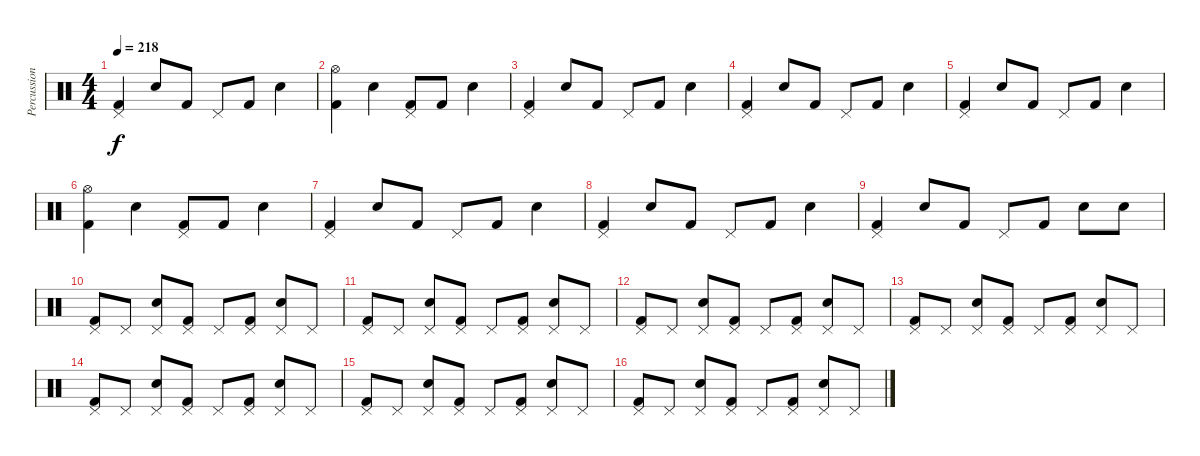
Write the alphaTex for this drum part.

\track ("Percussion" "Percussion") {instrument percussion}
\staff {score}
\articulation defaults
\ts (4 4)
\tempo 218
\clef neutral
\ks c
("Kick (hit) 2" "Pedal Hi-Hat (hit)").4{dy f} "Snare (hit) 2".8 "Kick (hit) 2".8 "Pedal Hi-Hat (hit)".8 "Kick (hit) 2".8 "Snare (hit) 2".4 |
("Kick (hit) 2" "Hi-Hat (open)").4 "Snare (hit) 2".4 ("Kick (hit) 2" "Pedal Hi-Hat (hit)").8 "Kick (hit) 2".8 "Snare (hit) 2".4 |
("Kick (hit) 2" "Pedal Hi-Hat (hit)").4 "Snare (hit) 2".8 "Kick (hit) 2".8 "Pedal Hi-Hat (hit)".8 "Kick (hit) 2".8 "Snare (hit) 2".4 |
("Kick (hit) 2" "Pedal Hi-Hat (hit)").4 "Snare (hit) 2".8 "Kick (hit) 2".8 "Pedal Hi-Hat (hit)".8 "Kick (hit) 2".8 "Snare (hit) 2".4 |
("Kick (hit) 2" "Pedal Hi-Hat (hit)").4 "Snare (hit) 2".8 "Kick (hit) 2".8 "Pedal Hi-Hat (hit)".8 "Kick (hit) 2".8 "Snare (hit) 2".4 |
("Kick (hit) 2" "Hi-Hat (open)").4 "Snare (hit) 2".4 ("Kick (hit) 2" "Pedal Hi-Hat (hit)").8 "Kick (hit) 2".8 "Snare (hit) 2".4 |
("Kick (hit) 2" "Pedal Hi-Hat (hit)").4 "Snare (hit) 2".8 "Kick (hit) 2".8 "Pedal Hi-Hat (hit)".8 "Kick (hit) 2".8 "Snare (hit) 2".4 |
("Kick (hit) 2" "Pedal Hi-Hat (hit)").4 "Snare (hit) 2".8 "Kick (hit) 2".8 "Pedal Hi-Hat (hit)".8 "Kick (hit) 2".8 "Snare (hit) 2".4 |
("Kick (hit) 2" "Pedal Hi-Hat (hit)").4 "Snare (hit) 2".8 "Kick (hit) 2".8 "Pedal Hi-Hat (hit)".8 "Kick (hit) 2".8 "Snare (hit) 2".8 "Snare (hit) 2".8 |
("Kick (hit) 2" "Pedal Hi-Hat (hit)").8 "Pedal Hi-Hat (hit)".8 ("Snare (hit) 2" "Pedal Hi-Hat (hit)").8 ("Kick (hit) 2" "Pedal Hi-Hat (hit)").8 "Pedal Hi-Hat (hit)".8 ("Kick (hit) 2" "Pedal Hi-Hat (hit)").8 ("Snare (hit) 2" "Pedal Hi-Hat (hit)").8 "Pedal Hi-Hat (hit)".8 |
("Kick (hit) 2" "Pedal Hi-Hat (hit)").8 "Pedal Hi-Hat (hit)".8 ("Snare (hit) 2" "Pedal Hi-Hat (hit)").8 ("Kick (hit) 2" "Pedal Hi-Hat (hit)").8 "Pedal Hi-Hat (hit)".8 ("Kick (hit) 2" "Pedal Hi-Hat (hit)").8 ("Snare (hit) 2" "Pedal Hi-Hat (hit)").8 "Pedal Hi-Hat (hit)".8 |
("Kick (hit) 2" "Pedal Hi-Hat (hit)").8 "Pedal Hi-Hat (hit)".8 ("Snare (hit) 2" "Pedal Hi-Hat (hit)").8 ("Kick (hit) 2" "Pedal Hi-Hat (hit)").8 "Pedal Hi-Hat (hit)".8 ("Kick (hit) 2" "Pedal Hi-Hat (hit)").8 ("Snare (hit) 2" "Pedal Hi-Hat (hit)").8 "Pedal Hi-Hat (hit)".8 |
("Kick (hit) 2" "Pedal Hi-Hat (hit)").8 "Pedal Hi-Hat (hit)".8 ("Snare (hit) 2" "Pedal Hi-Hat (hit)").8 ("Kick (hit) 2" "Pedal Hi-Hat (hit)").8 "Pedal Hi-Hat (hit)".8 ("Kick (hit) 2" "Pedal Hi-Hat (hit)").8 ("Snare (hit) 2" "Pedal Hi-Hat (hit)").8 "Pedal Hi-Hat (hit)".8 |
("Kick (hit) 2" "Pedal Hi-Hat (hit)").8 "Pedal Hi-Hat (hit)".8 ("Snare (hit) 2" "Pedal Hi-Hat (hit)").8 ("Kick (hit) 2" "Pedal Hi-Hat (hit)").8 "Pedal Hi-Hat (hit)".8 ("Kick (hit) 2" "Pedal Hi-Hat (hit)").8 ("Snare (hit) 2" "Pedal Hi-Hat (hit)").8 "Pedal Hi-Hat (hit)".8 |
("Kick (hit) 2" "Pedal Hi-Hat (hit)").8 "Pedal Hi-Hat (hit)".8 ("Snare (hit) 2" "Pedal Hi-Hat (hit)").8 ("Kick (hit) 2" "Pedal Hi-Hat (hit)").8 "Pedal Hi-Hat (hit)".8 ("Kick (hit) 2" "Pedal Hi-Hat (hit)").8 ("Snare (hit) 2" "Pedal Hi-Hat (hit)").8 "Pedal Hi-Hat (hit)".8 |
("Kick (hit) 2" "Pedal Hi-Hat (hit)").8 "Pedal Hi-Hat (hit)".8 ("Snare (hit) 2" "Pedal Hi-Hat (hit)").8 ("Kick (hit) 2" "Pedal Hi-Hat (hit)").8 "Pedal Hi-Hat (hit)".8 ("Kick (hit) 2" "Pedal Hi-Hat (hit)").8 ("Snare (hit) 2" "Pedal Hi-Hat (hit)").8 "Pedal Hi-Hat (hit)".8
